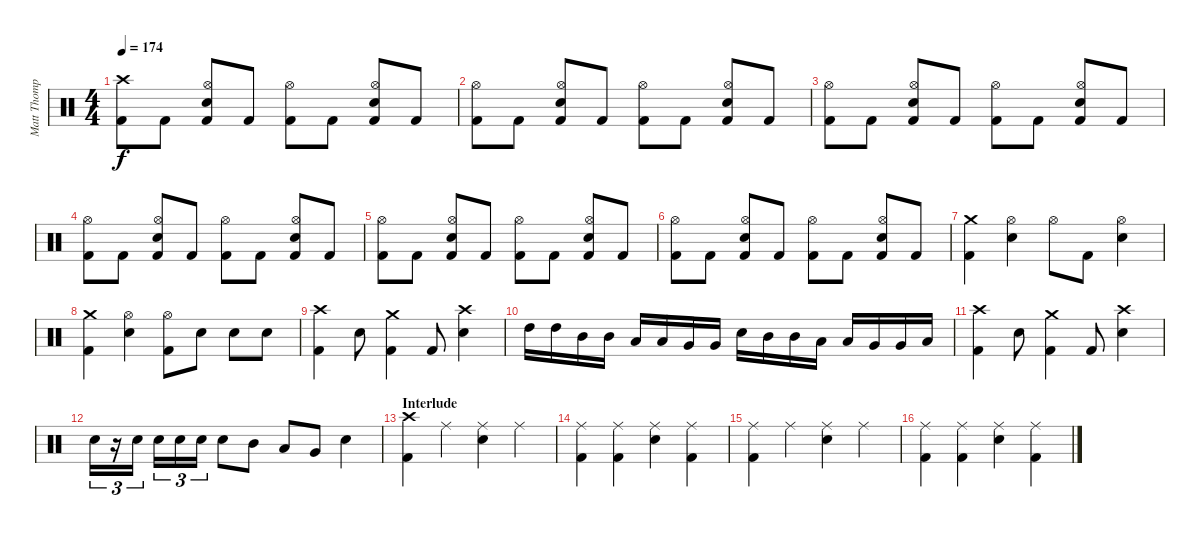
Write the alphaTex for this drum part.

\track ("Matt Thompson" "Matt Thomp") {instrument percussion}
\staff {score}
\articulation defaults
\ts (4 4)
\tempo 174
\clef neutral
\ks c
("Crash high (hit)" "Kick (hit) 2").8{dy f} "Kick (hit) 2".8 ("Hi-Hat (open)" "Snare (hit) 2" "Kick (hit) 2").8 "Kick (hit) 2".8 ("Hi-Hat (open)" "Kick (hit) 2").8 "Kick (hit) 2".8 ("Hi-Hat (open)" "Snare (hit) 2" "Kick (hit) 2").8 "Kick (hit) 2".8 |
("Hi-Hat (open)" "Kick (hit) 2").8 "Kick (hit) 2".8 ("Hi-Hat (open)" "Snare (hit) 2" "Kick (hit) 2").8 "Kick (hit) 2".8 ("Hi-Hat (open)" "Kick (hit) 2").8 "Kick (hit) 2".8 ("Hi-Hat (open)" "Snare (hit) 2" "Kick (hit) 2").8 "Kick (hit) 2".8 |
("Hi-Hat (open)" "Kick (hit) 2").8 "Kick (hit) 2".8 ("Hi-Hat (open)" "Snare (hit) 2" "Kick (hit) 2").8 "Kick (hit) 2".8 ("Hi-Hat (open)" "Kick (hit) 2").8 "Kick (hit) 2".8 ("Hi-Hat (open)" "Snare (hit) 2" "Kick (hit) 2").8 "Kick (hit) 2".8 |
("Hi-Hat (open)" "Kick (hit) 2").8 "Kick (hit) 2".8 ("Hi-Hat (open)" "Snare (hit) 2" "Kick (hit) 2").8 "Kick (hit) 2".8 ("Hi-Hat (open)" "Kick (hit) 2").8 "Kick (hit) 2".8 ("Hi-Hat (open)" "Snare (hit) 2" "Kick (hit) 2").8 "Kick (hit) 2".8 |
("Hi-Hat (open)" "Kick (hit) 2").8 "Kick (hit) 2".8 ("Hi-Hat (open)" "Snare (hit) 2" "Kick (hit) 2").8 "Kick (hit) 2".8 ("Hi-Hat (open)" "Kick (hit) 2").8 "Kick (hit) 2".8 ("Hi-Hat (open)" "Snare (hit) 2" "Kick (hit) 2").8 "Kick (hit) 2".8 |
("Hi-Hat (open)" "Kick (hit) 2").8 "Kick (hit) 2".8 ("Hi-Hat (open)" "Snare (hit) 2" "Kick (hit) 2").8 "Kick (hit) 2".8 ("Hi-Hat (open)" "Kick (hit) 2").8 "Kick (hit) 2".8 ("Hi-Hat (open)" "Snare (hit) 2" "Kick (hit) 2").8 "Kick (hit) 2".8 |
("Crash medium (hit)" "Kick (hit) 2").4 ("Hi-Hat (open)" "Snare (hit) 2").4 "Hi-Hat (open)".8 "Kick (hit) 2".8 ("Hi-Hat (open)" "Snare (hit) 2").4 |
("Crash medium (hit)" "Kick (hit) 2").4 ("Hi-Hat (open)" "Snare (hit) 2").4 ("Hi-Hat (open)" "Kick (hit) 2").8 "Snare (hit) 2".8 "Snare (hit) 2".8 "Snare (hit) 2".8 |
("Crash high (hit)" "Kick (hit) 2").4 "Snare (hit) 2".8 ("Crash medium (hit)" "Kick (hit) 2").4 "Kick (hit) 2".8 ("Crash high (hit)" "Snare (hit) 2").4 |
"High Tom (hit)".16 "High Tom (hit)".16 "Mid Tom (hit)".16 "Mid Tom (hit)".16 "Low Tom (hit)".16 "Low Tom (hit)".16 "Very Low Tom (hit)".16 "Very Low Tom (hit)".16 "Snare (hit) 2".16 "Mid Tom (hit)".16 "Mid Tom (hit)".16 "Low Tom (hit)".16 "Low Tom (hit)".16 "Very Low Tom (hit)".16 "Very Low Tom (hit)".16 "Low Floor Tom (hit)".16 |
("Crash high (hit)" "Kick (hit) 2").4 "Snare (hit) 2".8 ("Crash medium (hit)" "Kick (hit) 2").4 "Kick (hit) 2".8 ("Crash high (hit)" "Snare (hit) 2").4 |
"Snare (hit) 2".16{tu (3 2)} r.16{tu (3 2)} "Snare (hit) 2".16{tu (3 2)} "Snare (hit) 2".16{tu (3 2)} "Snare (hit) 2".16{tu (3 2)} "Snare (hit) 2".16{tu (3 2)} "Snare (hit) 2".8 "Mid Tom (hit)".8 "Low Tom (hit)".8 "Very Low Tom (hit)".8 "Snare (hit) 2".4 |
\section ("" "Interlude")
("Crash high (hit)" "Kick (hit) 2").4 "Ride (middle)".4 ("Ride (middle)" "Snare (hit) 2").4 "Ride (middle)".4 |
("Ride (middle)" "Kick (hit) 2").4 ("Ride (middle)" "Kick (hit) 2").4 ("Ride (middle)" "Snare (hit) 2").4 ("Ride (middle)" "Kick (hit) 2").4 |
("Ride (middle)" "Kick (hit) 2").4 "Ride (middle)".4 ("Ride (middle)" "Snare (hit) 2").4 "Ride (middle)".4 |
("Ride (middle)" "Kick (hit) 2").4 ("Ride (middle)" "Kick (hit) 2").4 ("Ride (middle)" "Snare (hit) 2").4 ("Ride (middle)" "Kick (hit) 2").4
